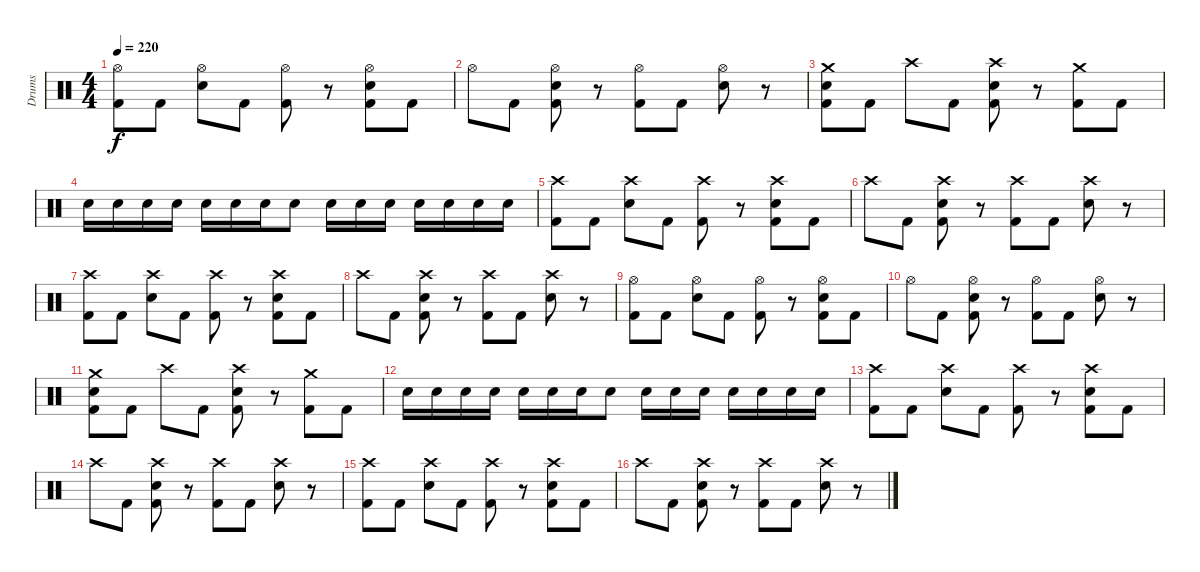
\track ("Drums" "Drums") {instrument percussion}
\staff {score}
\articulation defaults
\ts (4 4)
\tempo 220
\clef neutral
\ks c
("Hi-Hat (open)" "Kick (hit) 2").8{dy f} "Kick (hit) 2".8 ("Hi-Hat (open)" "Electric Snare (hit)").8 "Kick (hit) 2".8 ("Hi-Hat (open)" "Kick (hit) 2").8 r.8 ("Hi-Hat (open)" "Electric Snare (hit)" "Kick (hit) 2").8 "Kick (hit) 2".8 |
"Hi-Hat (open)".8 "Kick (hit) 2".8 ("Hi-Hat (open)" "Electric Snare (hit)" "Kick (hit) 2").8 r.8 ("Hi-Hat (open)" "Kick (hit) 2").8 "Kick (hit) 2".8 ("Hi-Hat (open)" "Electric Snare (hit)").8 r.8 |
("Crash medium (hit)" "Electric Snare (hit)" "Kick (hit) 2").8 "Kick (hit) 2".8 "Crash high (hit)".8 "Kick (hit) 2".8 ("Crash high (hit)" "Electric Snare (hit)" "Kick (hit) 2").8 r.8 ("Crash medium (hit)" "Kick (hit) 2").8 "Kick (hit) 2".8 |
"Electric Snare (hit)".16 "Electric Snare (hit)".16 "Electric Snare (hit)".16 "Electric Snare (hit)".16 "Electric Snare (hit)".16 "Electric Snare (hit)".16 "Electric Snare (hit)".16 "Electric Snare (hit)".8 "Electric Snare (hit)".16 "Electric Snare (hit)".16 "Electric Snare (hit)".16 "Electric Snare (hit)".16 "Electric Snare (hit)".16 "Electric Snare (hit)".16 "Electric Snare (hit)".16 |
("Crash high (hit)" "Kick (hit) 2").8 "Kick (hit) 2".8 ("Crash high (hit)" "Electric Snare (hit)").8 "Kick (hit) 2".8 ("Crash high (hit)" "Kick (hit) 2").8 r.8 ("Crash high (hit)" "Electric Snare (hit)" "Kick (hit) 2").8 "Kick (hit) 2".8 |
"Crash high (hit)".8 "Kick (hit) 2".8 ("Crash high (hit)" "Electric Snare (hit)" "Kick (hit) 2").8 r.8 ("Crash high (hit)" "Kick (hit) 2").8 "Kick (hit) 2".8 ("Crash high (hit)" "Electric Snare (hit)").8 r.8 |
("Crash high (hit)" "Kick (hit) 2").8 "Kick (hit) 2".8 ("Crash high (hit)" "Electric Snare (hit)").8 "Kick (hit) 2".8 ("Crash high (hit)" "Kick (hit) 2").8 r.8 ("Crash high (hit)" "Electric Snare (hit)" "Kick (hit) 2").8 "Kick (hit) 2".8 |
"Crash high (hit)".8 "Kick (hit) 2".8 ("Crash high (hit)" "Electric Snare (hit)" "Kick (hit) 2").8 r.8 ("Crash high (hit)" "Kick (hit) 2").8 "Kick (hit) 2".8 ("Crash high (hit)" "Electric Snare (hit)").8 r.8 |
("Hi-Hat (open)" "Kick (hit) 2").8 "Kick (hit) 2".8 ("Hi-Hat (open)" "Electric Snare (hit)").8 "Kick (hit) 2".8 ("Hi-Hat (open)" "Kick (hit) 2").8 r.8 ("Hi-Hat (open)" "Electric Snare (hit)" "Kick (hit) 2").8 "Kick (hit) 2".8 |
"Hi-Hat (open)".8 "Kick (hit) 2".8 ("Hi-Hat (open)" "Electric Snare (hit)" "Kick (hit) 2").8 r.8 ("Hi-Hat (open)" "Kick (hit) 2").8 "Kick (hit) 2".8 ("Hi-Hat (open)" "Electric Snare (hit)").8 r.8 |
("Crash medium (hit)" "Electric Snare (hit)" "Kick (hit) 2").8 "Kick (hit) 2".8 "Crash high (hit)".8 "Kick (hit) 2".8 ("Crash high (hit)" "Electric Snare (hit)" "Kick (hit) 2").8 r.8 ("Crash medium (hit)" "Kick (hit) 2").8 "Kick (hit) 2".8 |
"Electric Snare (hit)".16 "Electric Snare (hit)".16 "Electric Snare (hit)".16 "Electric Snare (hit)".16 "Electric Snare (hit)".16 "Electric Snare (hit)".16 "Electric Snare (hit)".16 "Electric Snare (hit)".8 "Electric Snare (hit)".16 "Electric Snare (hit)".16 "Electric Snare (hit)".16 "Electric Snare (hit)".16 "Electric Snare (hit)".16 "Electric Snare (hit)".16 "Electric Snare (hit)".16 |
("Crash high (hit)" "Kick (hit) 2").8 "Kick (hit) 2".8 ("Crash high (hit)" "Electric Snare (hit)").8 "Kick (hit) 2".8 ("Crash high (hit)" "Kick (hit) 2").8 r.8 ("Crash high (hit)" "Electric Snare (hit)" "Kick (hit) 2").8 "Kick (hit) 2".8 |
"Crash high (hit)".8 "Kick (hit) 2".8 ("Crash high (hit)" "Electric Snare (hit)" "Kick (hit) 2").8 r.8 ("Crash high (hit)" "Kick (hit) 2").8 "Kick (hit) 2".8 ("Crash high (hit)" "Electric Snare (hit)").8 r.8 |
("Crash high (hit)" "Kick (hit) 2").8 "Kick (hit) 2".8 ("Crash high (hit)" "Electric Snare (hit)").8 "Kick (hit) 2".8 ("Crash high (hit)" "Kick (hit) 2").8 r.8 ("Crash high (hit)" "Electric Snare (hit)" "Kick (hit) 2").8 "Kick (hit) 2".8 |
"Crash high (hit)".8 "Kick (hit) 2".8 ("Crash high (hit)" "Electric Snare (hit)" "Kick (hit) 2").8 r.8 ("Crash high (hit)" "Kick (hit) 2").8 "Kick (hit) 2".8 ("Crash high (hit)" "Electric Snare (hit)").8 r.8
